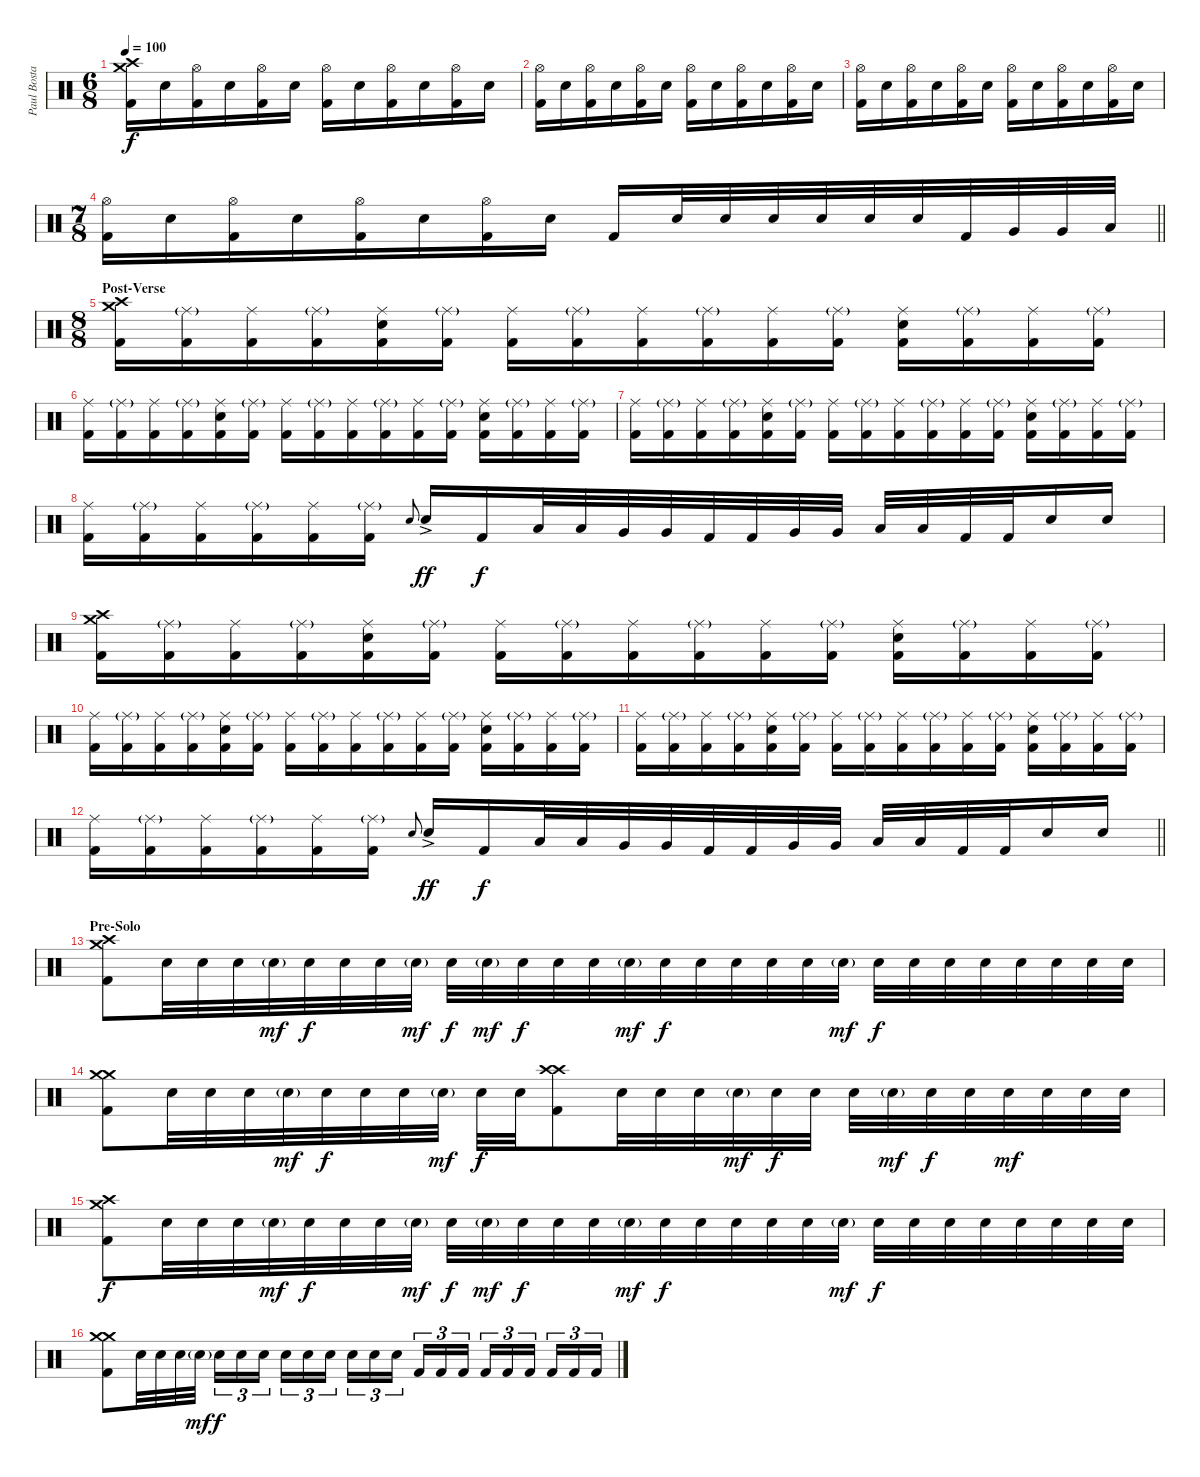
\track ("Paul Bostaph (Last Album 2 Feature Paul)" "Paul Bosta") {instrument percussion}
\staff {score}
\articulation defaults
\ts (6 8)
\tempo 100
\clef neutral
\ks c
("Crash high (hit)" "Crash medium (hit)" "Kick (hit) 2").16{dy f} "Electric Snare (hit)".16 ("Hi-Hat (open)" "Kick (hit) 2").16 "Electric Snare (hit)".16 ("Hi-Hat (open)" "Kick (hit) 2").16 "Electric Snare (hit)".16 ("Hi-Hat (open)" "Kick (hit) 2").16 "Electric Snare (hit)".16 ("Hi-Hat (open)" "Kick (hit) 2").16 "Electric Snare (hit)".16 ("Hi-Hat (open)" "Kick (hit) 2").16 "Electric Snare (hit)".16 |
("Hi-Hat (open)" "Kick (hit) 2").16 "Electric Snare (hit)".16 ("Hi-Hat (open)" "Kick (hit) 2").16 "Electric Snare (hit)".16 ("Hi-Hat (open)" "Kick (hit) 2").16 "Electric Snare (hit)".16 ("Hi-Hat (open)" "Kick (hit) 2").16 "Electric Snare (hit)".16 ("Hi-Hat (open)" "Kick (hit) 2").16 "Electric Snare (hit)".16 ("Hi-Hat (open)" "Kick (hit) 2").16 "Electric Snare (hit)".16 |
("Hi-Hat (open)" "Kick (hit) 2").16 "Electric Snare (hit)".16 ("Hi-Hat (open)" "Kick (hit) 2").16 "Electric Snare (hit)".16 ("Hi-Hat (open)" "Kick (hit) 2").16 "Electric Snare (hit)".16 ("Hi-Hat (open)" "Kick (hit) 2").16 "Electric Snare (hit)".16 ("Hi-Hat (open)" "Kick (hit) 2").16 "Electric Snare (hit)".16 ("Hi-Hat (open)" "Kick (hit) 2").16 "Electric Snare (hit)".16 |
\ts (7 8)
\barLineRight lightlight
("Hi-Hat (open)" "Kick (hit) 2").16 "Electric Snare (hit)".16 ("Hi-Hat (open)" "Kick (hit) 2").16 "Electric Snare (hit)".16 ("Hi-Hat (open)" "Kick (hit) 2").16 "Electric Snare (hit)".16 ("Hi-Hat (open)" "Kick (hit) 2").16 "Electric Snare (hit)".16 "Kick (hit) 2".16 "Electric Snare (hit)".32 "Electric Snare (hit)".32 "Electric Snare (hit)".32 "Electric Snare (hit)".32 "Electric Snare (hit)".32 "Electric Snare (hit)".32 "Kick (hit) 2".32 "Very Low Tom (hit)".32 "Very Low Tom (hit)".32 "Low Floor Tom (hit)".32 |
\ts (8 8)
\section ("" "Post-Verse")
("Crash medium (hit)" "Crash high (hit)" "Kick (hit) 2").16 ("Ride (middle)"{g} "Kick (hit) 2").16 ("Ride (middle)" "Kick (hit) 2").16 ("Ride (middle)"{g} "Kick (hit) 2").16 ("Ride (middle)" "Electric Snare (hit)" "Kick (hit) 2").16 ("Ride (middle)"{g} "Kick (hit) 2").16 ("Ride (middle)" "Kick (hit) 2").16 ("Ride (middle)"{g} "Kick (hit) 2").16 ("Ride (middle)" "Kick (hit) 2").16 ("Ride (middle)"{g} "Kick (hit) 2").16 ("Ride (middle)" "Kick (hit) 2").16 ("Ride (middle)"{g} "Kick (hit) 2").16 ("Ride (middle)" "Electric Snare (hit)" "Kick (hit) 2").16 ("Ride (middle)"{g} "Kick (hit) 2").16 ("Ride (middle)" "Kick (hit) 2").16 ("Ride (middle)"{g} "Kick (hit) 2").16 |
("Ride (middle)" "Kick (hit) 2").16 ("Ride (middle)"{g} "Kick (hit) 2").16 ("Ride (middle)" "Kick (hit) 2").16 ("Ride (middle)"{g} "Kick (hit) 2").16 ("Ride (middle)" "Electric Snare (hit)" "Kick (hit) 2").16 ("Ride (middle)"{g} "Kick (hit) 2").16 ("Ride (middle)" "Kick (hit) 2").16 ("Ride (middle)"{g} "Kick (hit) 2").16 ("Ride (middle)" "Kick (hit) 2").16 ("Ride (middle)"{g} "Kick (hit) 2").16 ("Ride (middle)" "Kick (hit) 2").16 ("Ride (middle)"{g} "Kick (hit) 2").16 ("Ride (middle)" "Electric Snare (hit)" "Kick (hit) 2").16 ("Ride (middle)"{g} "Kick (hit) 2").16 ("Ride (middle)" "Kick (hit) 2").16 ("Ride (middle)"{g} "Kick (hit) 2").16 |
("Ride (middle)" "Kick (hit) 2").16 ("Ride (middle)"{g} "Kick (hit) 2").16 ("Ride (middle)" "Kick (hit) 2").16 ("Ride (middle)"{g} "Kick (hit) 2").16 ("Ride (middle)" "Electric Snare (hit)" "Kick (hit) 2").16 ("Ride (middle)"{g} "Kick (hit) 2").16 ("Ride (middle)" "Kick (hit) 2").16 ("Ride (middle)"{g} "Kick (hit) 2").16 ("Ride (middle)" "Kick (hit) 2").16 ("Ride (middle)"{g} "Kick (hit) 2").16 ("Ride (middle)" "Kick (hit) 2").16 ("Ride (middle)"{g} "Kick (hit) 2").16 ("Ride (middle)" "Electric Snare (hit)" "Kick (hit) 2").16 ("Ride (middle)"{g} "Kick (hit) 2").16 ("Ride (middle)" "Kick (hit) 2").16 ("Ride (middle)"{g} "Kick (hit) 2").16 |
("Ride (middle)" "Kick (hit) 2").16 ("Ride (middle)"{g} "Kick (hit) 2").16 ("Ride (middle)" "Kick (hit) 2").16 ("Ride (middle)"{g} "Kick (hit) 2").16 ("Ride (middle)" "Kick (hit) 2").16 ("Ride (middle)"{g} "Kick (hit) 2").16 "Electric Snare (hit)".8{gr onbeat} "Electric Snare (hit)"{ac}.16{dy ff} "Kick (hit) 2".16{dy f} "Low Tom (hit)".32 "Low Tom (hit)".32 "Very Low Tom (hit)".32 "Very Low Tom (hit)".32 "Kick (hit) 2".32 "Kick (hit) 2".32 "Very Low Tom (hit)".32 "Very Low Tom (hit)".32 "Low Floor Tom (hit)".32 "Low Floor Tom (hit)".32 "Kick (hit) 2".32 "Kick (hit) 2".32 "Electric Snare (hit)".16 "Electric Snare (hit)".16 |
("Crash medium (hit)" "Crash high (hit)" "Kick (hit) 2").16 ("Ride (middle)"{g} "Kick (hit) 2").16 ("Ride (middle)" "Kick (hit) 2").16 ("Ride (middle)"{g} "Kick (hit) 2").16 ("Ride (middle)" "Electric Snare (hit)" "Kick (hit) 2").16 ("Ride (middle)"{g} "Kick (hit) 2").16 ("Ride (middle)" "Kick (hit) 2").16 ("Ride (middle)"{g} "Kick (hit) 2").16 ("Ride (middle)" "Kick (hit) 2").16 ("Ride (middle)"{g} "Kick (hit) 2").16 ("Ride (middle)" "Kick (hit) 2").16 ("Ride (middle)"{g} "Kick (hit) 2").16 ("Ride (middle)" "Electric Snare (hit)" "Kick (hit) 2").16 ("Ride (middle)"{g} "Kick (hit) 2").16 ("Ride (middle)" "Kick (hit) 2").16 ("Ride (middle)"{g} "Kick (hit) 2").16 |
("Ride (middle)" "Kick (hit) 2").16 ("Ride (middle)"{g} "Kick (hit) 2").16 ("Ride (middle)" "Kick (hit) 2").16 ("Ride (middle)"{g} "Kick (hit) 2").16 ("Ride (middle)" "Electric Snare (hit)" "Kick (hit) 2").16 ("Ride (middle)"{g} "Kick (hit) 2").16 ("Ride (middle)" "Kick (hit) 2").16 ("Ride (middle)"{g} "Kick (hit) 2").16 ("Ride (middle)" "Kick (hit) 2").16 ("Ride (middle)"{g} "Kick (hit) 2").16 ("Ride (middle)" "Kick (hit) 2").16 ("Ride (middle)"{g} "Kick (hit) 2").16 ("Ride (middle)" "Electric Snare (hit)" "Kick (hit) 2").16 ("Ride (middle)"{g} "Kick (hit) 2").16 ("Ride (middle)" "Kick (hit) 2").16 ("Ride (middle)"{g} "Kick (hit) 2").16 |
("Ride (middle)" "Kick (hit) 2").16 ("Ride (middle)"{g} "Kick (hit) 2").16 ("Ride (middle)" "Kick (hit) 2").16 ("Ride (middle)"{g} "Kick (hit) 2").16 ("Ride (middle)" "Electric Snare (hit)" "Kick (hit) 2").16 ("Ride (middle)"{g} "Kick (hit) 2").16 ("Ride (middle)" "Kick (hit) 2").16 ("Ride (middle)"{g} "Kick (hit) 2").16 ("Ride (middle)" "Kick (hit) 2").16 ("Ride (middle)"{g} "Kick (hit) 2").16 ("Ride (middle)" "Kick (hit) 2").16 ("Ride (middle)"{g} "Kick (hit) 2").16 ("Ride (middle)" "Electric Snare (hit)" "Kick (hit) 2").16 ("Ride (middle)"{g} "Kick (hit) 2").16 ("Ride (middle)" "Kick (hit) 2").16 ("Ride (middle)"{g} "Kick (hit) 2").16 |
\barLineRight lightlight
("Ride (middle)" "Kick (hit) 2").16 ("Ride (middle)"{g} "Kick (hit) 2").16 ("Ride (middle)" "Kick (hit) 2").16 ("Ride (middle)"{g} "Kick (hit) 2").16 ("Ride (middle)" "Kick (hit) 2").16 ("Ride (middle)"{g} "Kick (hit) 2").16 "Electric Snare (hit)".8{gr onbeat} "Electric Snare (hit)"{ac}.16{dy ff} "Kick (hit) 2".16{dy f} "Low Tom (hit)".32 "Low Tom (hit)".32 "Very Low Tom (hit)".32 "Very Low Tom (hit)".32 "Kick (hit) 2".32 "Kick (hit) 2".32 "Very Low Tom (hit)".32 "Very Low Tom (hit)".32 "Low Floor Tom (hit)".32 "Low Floor Tom (hit)".32 "Kick (hit) 2".32 "Kick (hit) 2".32 "Electric Snare (hit)".16 "Electric Snare (hit)".16 |
\section ("" "Pre-Solo")
("Crash high (hit)" "Crash medium (hit)" "Kick (hit) 2").8 "Electric Snare (hit)".32 "Electric Snare (hit)".32 "Electric Snare (hit)".32 "Electric Snare (hit)"{g}.32{dy mf} "Electric Snare (hit)".32{dy f} "Electric Snare (hit)".32 "Electric Snare (hit)".32 "Electric Snare (hit)"{g}.32{dy mf} "Electric Snare (hit)".32{dy f} "Electric Snare (hit)"{g}.32{dy mf} "Electric Snare (hit)".32{dy f} "Electric Snare (hit)".32 "Electric Snare (hit)".32 "Electric Snare (hit)"{g}.32{dy mf} "Electric Snare (hit)".32{dy f} "Electric Snare (hit)".32 "Electric Snare (hit)".32 "Electric Snare (hit)".32 "Electric Snare (hit)".32 "Electric Snare (hit)"{g}.32{dy mf} "Electric Snare (hit)".32{dy f} "Electric Snare (hit)".32 "Electric Snare (hit)".32 "Electric Snare (hit)".32 "Electric Snare (hit)".32 "Electric Snare (hit)".32 "Electric Snare (hit)".32 "Electric Snare (hit)".32 |
("Crash medium (hit)" "Crash medium (hit)" "Kick (hit) 2").8 "Electric Snare (hit)".32 "Electric Snare (hit)".32 "Electric Snare (hit)".32 "Electric Snare (hit)"{g}.32{dy mf} "Electric Snare (hit)".32{dy f} "Electric Snare (hit)".32 "Electric Snare (hit)".32 "Electric Snare (hit)"{g}.32{dy mf} "Electric Snare (hit)".32{dy f} "Electric Snare (hit)".32 ("Crash high (hit)" "Crash high (hit)" "Kick (hit) 2").8 "Electric Snare (hit)".32 "Electric Snare (hit)".32 "Electric Snare (hit)".32 "Electric Snare (hit)"{g}.32{dy mf} "Electric Snare (hit)".32{dy f} "Electric Snare (hit)".32 "Electric Snare (hit)".32 "Electric Snare (hit)"{g}.32{dy mf} "Electric Snare (hit)".32{dy f} "Electric Snare (hit)".32 "Electric Snare (hit)".32{dy mf} "Electric Snare (hit)".32 "Electric Snare (hit)".32 "Electric Snare (hit)".32 |
("Crash high (hit)" "Crash medium (hit)" "Kick (hit) 2").8{dy f} "Electric Snare (hit)".32 "Electric Snare (hit)".32 "Electric Snare (hit)".32 "Electric Snare (hit)"{g}.32{dy mf} "Electric Snare (hit)".32{dy f} "Electric Snare (hit)".32 "Electric Snare (hit)".32 "Electric Snare (hit)"{g}.32{dy mf} "Electric Snare (hit)".32{dy f} "Electric Snare (hit)"{g}.32{dy mf} "Electric Snare (hit)".32{dy f} "Electric Snare (hit)".32 "Electric Snare (hit)".32 "Electric Snare (hit)"{g}.32{dy mf} "Electric Snare (hit)".32{dy f} "Electric Snare (hit)".32 "Electric Snare (hit)".32 "Electric Snare (hit)".32 "Electric Snare (hit)".32 "Electric Snare (hit)"{g}.32{dy mf} "Electric Snare (hit)".32{dy f} "Electric Snare (hit)".32 "Electric Snare (hit)".32 "Electric Snare (hit)".32 "Electric Snare (hit)".32 "Electric Snare (hit)".32 "Electric Snare (hit)".32 "Electric Snare (hit)".32 |
("Crash medium (hit)" "Crash medium (hit)" "Kick (hit) 2").8 "Electric Snare (hit)".32 "Electric Snare (hit)".32 "Electric Snare (hit)".32 "Electric Snare (hit)"{g}.32{dy mf} "Electric Snare (hit)".16{tu (3 2) dy f} "Electric Snare (hit)".16{tu (3 2)} "Electric Snare (hit)".16{tu (3 2)} "Electric Snare (hit)".16{tu (3 2)} "Electric Snare (hit)".16{tu (3 2)} "Electric Snare (hit)".16{tu (3 2)} "Electric Snare (hit)".16{tu (3 2)} "Electric Snare (hit)".16{tu (3 2)} "Electric Snare (hit)".16{tu (3 2)} "Kick (hit) 2".16{tu (3 2)} "Kick (hit) 2".16{tu (3 2)} "Kick (hit) 2".16{tu (3 2)} "Kick (hit) 2".16{tu (3 2)} "Kick (hit) 2".16{tu (3 2)} "Kick (hit) 2".16{tu (3 2)} "Kick (hit) 2".16{tu (3 2)} "Kick (hit) 2".16{tu (3 2)} "Kick (hit) 2".16{tu (3 2)}
